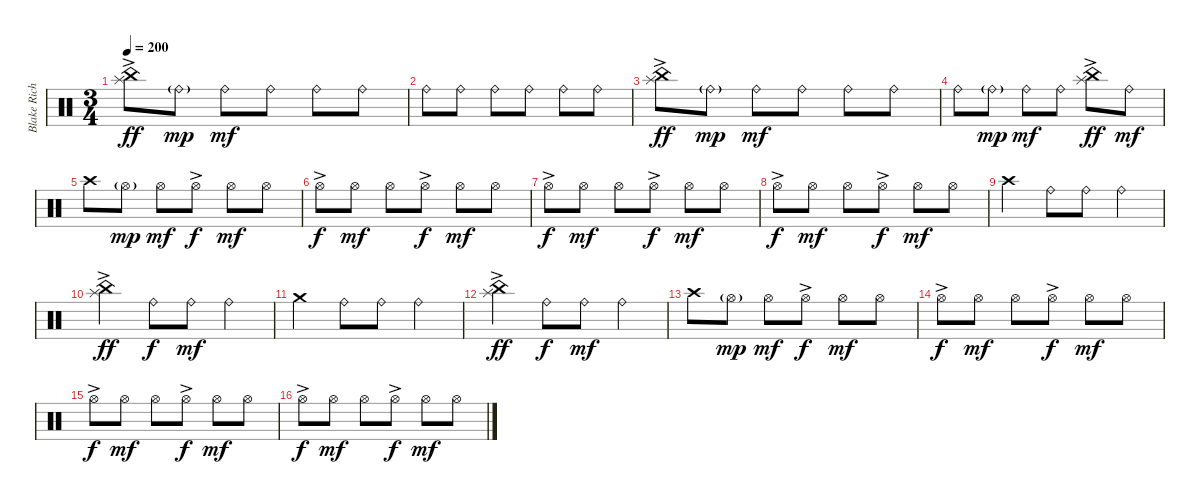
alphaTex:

\track ("Blake Richardson Drums" "Blake Rich") {instrument percussion}
\staff {score}
\articulation defaults
\ts (3 4)
\tempo 200
\clef neutral
\ks c
("China (hit)" "Splash (hit)"{ac}).8{dy ff} "Ride (bell)"{g}.8{dy mp} "Ride (bell)".8{dy mf} "Ride (bell)".8 "Ride (bell)".8 "Ride (bell)".8 |
"Ride (bell)".8 "Ride (bell)".8 "Ride (bell)".8 "Ride (bell)".8 "Ride (bell)".8 "Ride (bell)".8 |
("China (hit)" "Splash (hit)"{ac}).8{dy ff} "Ride (bell)"{g}.8{dy mp} "Ride (bell)".8{dy mf} "Ride (bell)".8 "Ride (bell)".8 "Ride (bell)".8 |
"Ride (bell)".8 "Ride (bell)"{g}.8{dy mp} "Ride (bell)".8{dy mf} "Ride (bell)".8 ("China (hit)" "Splash (hit)"{ac}).8{dy ff} "Ride (bell)".8{dy mf} |
"Crash high (hit)".8 "Hi-Hat (open)"{g}.8{dy mp} "Hi-Hat (open)".8{dy mf} "Hi-Hat (open)"{ac}.8{dy f} "Hi-Hat (open)".8{dy mf} "Hi-Hat (open)".8 |
"Hi-Hat (open)"{ac}.8{dy f} "Hi-Hat (open)".8{dy mf} "Hi-Hat (open)".8 "Hi-Hat (open)"{ac}.8{dy f} "Hi-Hat (open)".8{dy mf} "Hi-Hat (open)".8 |
"Hi-Hat (open)"{ac}.8{dy f} "Hi-Hat (open)".8{dy mf} "Hi-Hat (open)".8 "Hi-Hat (open)"{ac}.8{dy f} "Hi-Hat (open)".8{dy mf} "Hi-Hat (open)".8 |
"Hi-Hat (open)"{ac}.8{dy f} "Hi-Hat (open)".8{dy mf} "Hi-Hat (open)".8 "Hi-Hat (open)"{ac}.8{dy f} "Hi-Hat (open)".8{dy mf} "Hi-Hat (open)".8 |
"Crash high (hit)".4 "Ride (bell)".8 "Ride (bell)".8 "Ride (bell)".4 |
("China (hit)" "Splash (hit)"{ac}).4{dy ff} "Ride (bell)".8{dy f} "Ride (bell)".8{dy mf} "Ride (bell)".4 |
"Crash medium (hit)".4 "Ride (bell)".8 "Ride (bell)".8 "Ride (bell)".4 |
("China (hit)" "Splash (hit)"{ac}).4{dy ff} "Ride (bell)".8{dy f} "Ride (bell)".8{dy mf} "Ride (bell)".4 |
"Crash high (hit)".8 "Hi-Hat (open)"{g}.8{dy mp} "Hi-Hat (open)".8{dy mf} "Hi-Hat (open)"{ac}.8{dy f} "Hi-Hat (open)".8{dy mf} "Hi-Hat (open)".8 |
"Hi-Hat (open)"{ac}.8{dy f} "Hi-Hat (open)".8{dy mf} "Hi-Hat (open)".8 "Hi-Hat (open)"{ac}.8{dy f} "Hi-Hat (open)".8{dy mf} "Hi-Hat (open)".8 |
"Hi-Hat (open)"{ac}.8{dy f} "Hi-Hat (open)".8{dy mf} "Hi-Hat (open)".8 "Hi-Hat (open)"{ac}.8{dy f} "Hi-Hat (open)".8{dy mf} "Hi-Hat (open)".8 |
"Hi-Hat (open)"{ac}.8{dy f} "Hi-Hat (open)".8{dy mf} "Hi-Hat (open)".8 "Hi-Hat (open)"{ac}.8{dy f} "Hi-Hat (open)".8{dy mf} "Hi-Hat (open)".8
